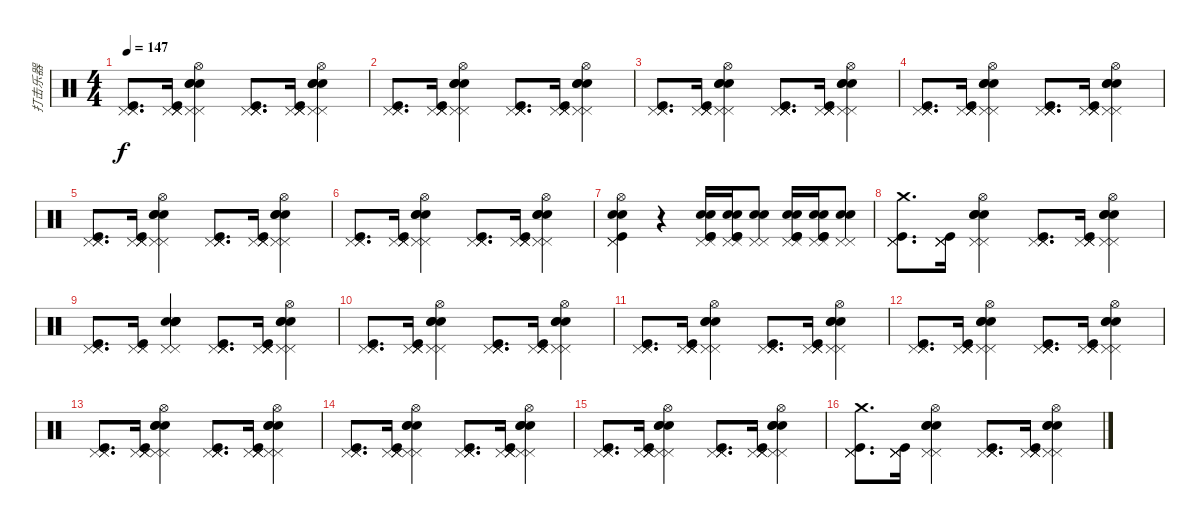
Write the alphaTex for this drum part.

\track ("打击乐器" "打击乐器") {instrument percussion}
\staff {score}
\articulation defaults
\ts (4 4)
\tempo 147
\clef neutral
\ks c
("Pedal Hi-Hat (hit)" "Pedal Hi-Hat (hit)" "Pedal Hi-Hat (hit)" "Kick (hit)").8{d dy f} ("Pedal Hi-Hat (hit)" "Pedal Hi-Hat (hit)" "Pedal Hi-Hat (hit)" "Pedal Hi-Hat (hit)" "Kick (hit)").16 ("Electric Snare (hit)" "Electric Snare (hit)" "Electric Snare (hit)" "Hi-Hat (open)" "Pedal Hi-Hat (hit)" "Pedal Hi-Hat (hit)").4 ("Pedal Hi-Hat (hit)" "Pedal Hi-Hat (hit)" "Pedal Hi-Hat (hit)" "Pedal Hi-Hat (hit)" "Kick (hit)").8{d} ("Pedal Hi-Hat (hit)" "Pedal Hi-Hat (hit)" "Pedal Hi-Hat (hit)" "Pedal Hi-Hat (hit)" "Kick (hit)").16 ("Electric Snare (hit)" "Electric Snare (hit)" "Electric Snare (hit)" "Hi-Hat (open)" "Pedal Hi-Hat (hit)" "Pedal Hi-Hat (hit)").4 |
("Pedal Hi-Hat (hit)" "Pedal Hi-Hat (hit)" "Pedal Hi-Hat (hit)" "Kick (hit)").8{d} ("Pedal Hi-Hat (hit)" "Pedal Hi-Hat (hit)" "Pedal Hi-Hat (hit)" "Pedal Hi-Hat (hit)" "Kick (hit)").16 ("Electric Snare (hit)" "Electric Snare (hit)" "Electric Snare (hit)" "Hi-Hat (open)" "Pedal Hi-Hat (hit)" "Pedal Hi-Hat (hit)").4 ("Pedal Hi-Hat (hit)" "Pedal Hi-Hat (hit)" "Pedal Hi-Hat (hit)" "Pedal Hi-Hat (hit)" "Kick (hit)").8{d} ("Pedal Hi-Hat (hit)" "Pedal Hi-Hat (hit)" "Pedal Hi-Hat (hit)" "Pedal Hi-Hat (hit)" "Kick (hit)").16 ("Electric Snare (hit)" "Electric Snare (hit)" "Electric Snare (hit)" "Hi-Hat (open)" "Pedal Hi-Hat (hit)" "Pedal Hi-Hat (hit)").4 |
("Pedal Hi-Hat (hit)" "Pedal Hi-Hat (hit)" "Pedal Hi-Hat (hit)" "Kick (hit)").8{d} ("Pedal Hi-Hat (hit)" "Pedal Hi-Hat (hit)" "Pedal Hi-Hat (hit)" "Pedal Hi-Hat (hit)" "Kick (hit)").16 ("Electric Snare (hit)" "Electric Snare (hit)" "Electric Snare (hit)" "Hi-Hat (open)" "Pedal Hi-Hat (hit)" "Pedal Hi-Hat (hit)").4 ("Pedal Hi-Hat (hit)" "Pedal Hi-Hat (hit)" "Pedal Hi-Hat (hit)" "Pedal Hi-Hat (hit)" "Kick (hit)").8{d} ("Pedal Hi-Hat (hit)" "Pedal Hi-Hat (hit)" "Pedal Hi-Hat (hit)" "Pedal Hi-Hat (hit)" "Kick (hit)").16 ("Electric Snare (hit)" "Electric Snare (hit)" "Electric Snare (hit)" "Hi-Hat (open)" "Pedal Hi-Hat (hit)" "Pedal Hi-Hat (hit)").4 |
("Pedal Hi-Hat (hit)" "Pedal Hi-Hat (hit)" "Pedal Hi-Hat (hit)" "Kick (hit)").8{d} ("Pedal Hi-Hat (hit)" "Pedal Hi-Hat (hit)" "Pedal Hi-Hat (hit)" "Pedal Hi-Hat (hit)" "Kick (hit)").16 ("Electric Snare (hit)" "Electric Snare (hit)" "Electric Snare (hit)" "Hi-Hat (open)" "Pedal Hi-Hat (hit)" "Pedal Hi-Hat (hit)").4 ("Pedal Hi-Hat (hit)" "Pedal Hi-Hat (hit)" "Pedal Hi-Hat (hit)" "Pedal Hi-Hat (hit)" "Kick (hit)").8{d} ("Pedal Hi-Hat (hit)" "Pedal Hi-Hat (hit)" "Pedal Hi-Hat (hit)" "Pedal Hi-Hat (hit)" "Kick (hit)").16 ("Electric Snare (hit)" "Electric Snare (hit)" "Electric Snare (hit)" "Hi-Hat (open)" "Pedal Hi-Hat (hit)" "Pedal Hi-Hat (hit)").4 |
("Pedal Hi-Hat (hit)" "Pedal Hi-Hat (hit)" "Pedal Hi-Hat (hit)" "Kick (hit)").8{d} ("Pedal Hi-Hat (hit)" "Pedal Hi-Hat (hit)" "Pedal Hi-Hat (hit)" "Pedal Hi-Hat (hit)" "Kick (hit)").16 ("Electric Snare (hit)" "Electric Snare (hit)" "Electric Snare (hit)" "Hi-Hat (open)" "Pedal Hi-Hat (hit)" "Pedal Hi-Hat (hit)").4 ("Pedal Hi-Hat (hit)" "Pedal Hi-Hat (hit)" "Pedal Hi-Hat (hit)" "Pedal Hi-Hat (hit)" "Kick (hit)").8{d} ("Pedal Hi-Hat (hit)" "Pedal Hi-Hat (hit)" "Pedal Hi-Hat (hit)" "Pedal Hi-Hat (hit)" "Kick (hit)").16 ("Electric Snare (hit)" "Electric Snare (hit)" "Electric Snare (hit)" "Hi-Hat (open)" "Pedal Hi-Hat (hit)" "Pedal Hi-Hat (hit)").4 |
("Pedal Hi-Hat (hit)" "Pedal Hi-Hat (hit)" "Pedal Hi-Hat (hit)" "Kick (hit)").8{d} ("Pedal Hi-Hat (hit)" "Pedal Hi-Hat (hit)" "Pedal Hi-Hat (hit)" "Pedal Hi-Hat (hit)" "Kick (hit)").16 ("Electric Snare (hit)" "Electric Snare (hit)" "Electric Snare (hit)" "Hi-Hat (open)" "Pedal Hi-Hat (hit)" "Pedal Hi-Hat (hit)").4 ("Pedal Hi-Hat (hit)" "Pedal Hi-Hat (hit)" "Pedal Hi-Hat (hit)" "Pedal Hi-Hat (hit)" "Kick (hit)").8{d} ("Pedal Hi-Hat (hit)" "Pedal Hi-Hat (hit)" "Pedal Hi-Hat (hit)" "Pedal Hi-Hat (hit)" "Kick (hit)").16 ("Electric Snare (hit)" "Electric Snare (hit)" "Electric Snare (hit)" "Hi-Hat (open)" "Pedal Hi-Hat (hit)" "Pedal Hi-Hat (hit)").4 |
("Hi-Hat (open)" "Pedal Hi-Hat (hit)" "Pedal Hi-Hat (hit)" "Electric Snare (hit)" "Electric Snare (hit)" "Kick (hit)").4 r.4 ("Pedal Hi-Hat (hit)" "Pedal Hi-Hat (hit)" "Electric Snare (hit)" "Electric Snare (hit)" "Kick (hit)" "Kick (hit)").16 ("Pedal Hi-Hat (hit)" "Pedal Hi-Hat (hit)" "Electric Snare (hit)" "Electric Snare (hit)" "Kick (hit)" "Kick (hit)").16 ("Pedal Hi-Hat (hit)" "Pedal Hi-Hat (hit)" "Electric Snare (hit)" "Electric Snare (hit)").8 ("Pedal Hi-Hat (hit)" "Pedal Hi-Hat (hit)" "Electric Snare (hit)" "Electric Snare (hit)" "Kick (hit)" "Kick (hit)").16 ("Pedal Hi-Hat (hit)" "Pedal Hi-Hat (hit)" "Electric Snare (hit)" "Electric Snare (hit)" "Kick (hit)" "Kick (hit)").16 ("Pedal Hi-Hat (hit)" "Pedal Hi-Hat (hit)" "Electric Snare (hit)" "Electric Snare (hit)").8 |
("Pedal Hi-Hat (hit)" "Pedal Hi-Hat (hit)" "Pedal Hi-Hat (hit)" "Crash medium (hit)" "Kick (hit)").8{d} ("Pedal Hi-Hat (hit)" "Pedal Hi-Hat (hit)" "Pedal Hi-Hat (hit)" "Pedal Hi-Hat (hit)" "Kick (hit)").16 ("Electric Snare (hit)" "Electric Snare (hit)" "Electric Snare (hit)" "Hi-Hat (open)" "Pedal Hi-Hat (hit)" "Pedal Hi-Hat (hit)").4 ("Pedal Hi-Hat (hit)" "Pedal Hi-Hat (hit)" "Pedal Hi-Hat (hit)" "Pedal Hi-Hat (hit)" "Kick (hit)").8{d} ("Pedal Hi-Hat (hit)" "Pedal Hi-Hat (hit)" "Pedal Hi-Hat (hit)" "Pedal Hi-Hat (hit)" "Kick (hit)").16 ("Electric Snare (hit)" "Electric Snare (hit)" "Electric Snare (hit)" "Hi-Hat (open)" "Pedal Hi-Hat (hit)" "Pedal Hi-Hat (hit)").4 |
("Pedal Hi-Hat (hit)" "Pedal Hi-Hat (hit)" "Pedal Hi-Hat (hit)" "Kick (hit)").8{d} ("Pedal Hi-Hat (hit)" "Pedal Hi-Hat (hit)" "Pedal Hi-Hat (hit)" "Kick (hit)").16 ("Electric Snare (hit)" "Electric Snare (hit)" "Electric Snare (hit)" "Electric Snare (hit)" "Pedal Hi-Hat (hit)" "Pedal Hi-Hat (hit)").4 ("Pedal Hi-Hat (hit)" "Pedal Hi-Hat (hit)" "Pedal Hi-Hat (hit)" "Pedal Hi-Hat (hit)" "Kick (hit)").8{d} ("Pedal Hi-Hat (hit)" "Pedal Hi-Hat (hit)" "Pedal Hi-Hat (hit)" "Pedal Hi-Hat (hit)" "Kick (hit)").16 ("Electric Snare (hit)" "Electric Snare (hit)" "Electric Snare (hit)" "Hi-Hat (open)" "Pedal Hi-Hat (hit)" "Pedal Hi-Hat (hit)").4 |
("Pedal Hi-Hat (hit)" "Pedal Hi-Hat (hit)" "Pedal Hi-Hat (hit)" "Kick (hit)").8{d} ("Pedal Hi-Hat (hit)" "Pedal Hi-Hat (hit)" "Pedal Hi-Hat (hit)" "Pedal Hi-Hat (hit)" "Kick (hit)").16 ("Electric Snare (hit)" "Electric Snare (hit)" "Electric Snare (hit)" "Hi-Hat (open)" "Pedal Hi-Hat (hit)" "Pedal Hi-Hat (hit)").4 ("Pedal Hi-Hat (hit)" "Pedal Hi-Hat (hit)" "Pedal Hi-Hat (hit)" "Pedal Hi-Hat (hit)" "Kick (hit)").8{d} ("Pedal Hi-Hat (hit)" "Pedal Hi-Hat (hit)" "Pedal Hi-Hat (hit)" "Pedal Hi-Hat (hit)" "Kick (hit)").16 ("Electric Snare (hit)" "Electric Snare (hit)" "Electric Snare (hit)" "Hi-Hat (open)" "Pedal Hi-Hat (hit)" "Pedal Hi-Hat (hit)").4 |
("Pedal Hi-Hat (hit)" "Pedal Hi-Hat (hit)" "Pedal Hi-Hat (hit)" "Kick (hit)").8{d} ("Pedal Hi-Hat (hit)" "Pedal Hi-Hat (hit)" "Pedal Hi-Hat (hit)" "Pedal Hi-Hat (hit)" "Kick (hit)").16 ("Electric Snare (hit)" "Electric Snare (hit)" "Electric Snare (hit)" "Hi-Hat (open)" "Pedal Hi-Hat (hit)" "Pedal Hi-Hat (hit)").4 ("Pedal Hi-Hat (hit)" "Pedal Hi-Hat (hit)" "Pedal Hi-Hat (hit)" "Pedal Hi-Hat (hit)" "Kick (hit)").8{d} ("Pedal Hi-Hat (hit)" "Pedal Hi-Hat (hit)" "Pedal Hi-Hat (hit)" "Pedal Hi-Hat (hit)" "Kick (hit)").16 ("Electric Snare (hit)" "Electric Snare (hit)" "Electric Snare (hit)" "Hi-Hat (open)" "Pedal Hi-Hat (hit)" "Pedal Hi-Hat (hit)").4 |
("Pedal Hi-Hat (hit)" "Pedal Hi-Hat (hit)" "Pedal Hi-Hat (hit)" "Kick (hit)").8{d} ("Pedal Hi-Hat (hit)" "Pedal Hi-Hat (hit)" "Pedal Hi-Hat (hit)" "Pedal Hi-Hat (hit)" "Kick (hit)").16 ("Electric Snare (hit)" "Electric Snare (hit)" "Electric Snare (hit)" "Hi-Hat (open)" "Pedal Hi-Hat (hit)" "Pedal Hi-Hat (hit)").4 ("Pedal Hi-Hat (hit)" "Pedal Hi-Hat (hit)" "Pedal Hi-Hat (hit)" "Pedal Hi-Hat (hit)" "Kick (hit)").8{d} ("Pedal Hi-Hat (hit)" "Pedal Hi-Hat (hit)" "Pedal Hi-Hat (hit)" "Pedal Hi-Hat (hit)" "Kick (hit)").16 ("Electric Snare (hit)" "Electric Snare (hit)" "Electric Snare (hit)" "Hi-Hat (open)" "Pedal Hi-Hat (hit)" "Pedal Hi-Hat (hit)").4 |
("Pedal Hi-Hat (hit)" "Pedal Hi-Hat (hit)" "Pedal Hi-Hat (hit)" "Kick (hit)").8{d} ("Pedal Hi-Hat (hit)" "Pedal Hi-Hat (hit)" "Pedal Hi-Hat (hit)" "Pedal Hi-Hat (hit)" "Kick (hit)").16 ("Electric Snare (hit)" "Electric Snare (hit)" "Electric Snare (hit)" "Hi-Hat (open)" "Pedal Hi-Hat (hit)" "Pedal Hi-Hat (hit)").4 ("Pedal Hi-Hat (hit)" "Pedal Hi-Hat (hit)" "Pedal Hi-Hat (hit)" "Pedal Hi-Hat (hit)" "Kick (hit)").8{d} ("Pedal Hi-Hat (hit)" "Pedal Hi-Hat (hit)" "Pedal Hi-Hat (hit)" "Pedal Hi-Hat (hit)" "Kick (hit)").16 ("Electric Snare (hit)" "Electric Snare (hit)" "Electric Snare (hit)" "Hi-Hat (open)" "Pedal Hi-Hat (hit)" "Pedal Hi-Hat (hit)").4 |
("Pedal Hi-Hat (hit)" "Pedal Hi-Hat (hit)" "Pedal Hi-Hat (hit)" "Kick (hit)").8{d} ("Pedal Hi-Hat (hit)" "Pedal Hi-Hat (hit)" "Pedal Hi-Hat (hit)" "Pedal Hi-Hat (hit)" "Kick (hit)").16 ("Electric Snare (hit)" "Electric Snare (hit)" "Electric Snare (hit)" "Hi-Hat (open)" "Pedal Hi-Hat (hit)" "Pedal Hi-Hat (hit)").4 ("Pedal Hi-Hat (hit)" "Pedal Hi-Hat (hit)" "Pedal Hi-Hat (hit)" "Pedal Hi-Hat (hit)" "Kick (hit)").8{d} ("Pedal Hi-Hat (hit)" "Pedal Hi-Hat (hit)" "Pedal Hi-Hat (hit)" "Pedal Hi-Hat (hit)" "Kick (hit)").16 ("Electric Snare (hit)" "Electric Snare (hit)" "Electric Snare (hit)" "Hi-Hat (open)" "Pedal Hi-Hat (hit)" "Pedal Hi-Hat (hit)").4 |
("Pedal Hi-Hat (hit)" "Pedal Hi-Hat (hit)" "Pedal Hi-Hat (hit)" "Kick (hit)").8{d} ("Pedal Hi-Hat (hit)" "Pedal Hi-Hat (hit)" "Pedal Hi-Hat (hit)" "Pedal Hi-Hat (hit)" "Kick (hit)").16 ("Electric Snare (hit)" "Electric Snare (hit)" "Electric Snare (hit)" "Hi-Hat (open)" "Pedal Hi-Hat (hit)" "Pedal Hi-Hat (hit)").4 ("Pedal Hi-Hat (hit)" "Pedal Hi-Hat (hit)" "Pedal Hi-Hat (hit)" "Pedal Hi-Hat (hit)" "Kick (hit)").8{d} ("Pedal Hi-Hat (hit)" "Pedal Hi-Hat (hit)" "Pedal Hi-Hat (hit)" "Pedal Hi-Hat (hit)" "Kick (hit)").16 ("Electric Snare (hit)" "Electric Snare (hit)" "Electric Snare (hit)" "Hi-Hat (open)" "Pedal Hi-Hat (hit)" "Pedal Hi-Hat (hit)").4 |
("Pedal Hi-Hat (hit)" "Pedal Hi-Hat (hit)" "Pedal Hi-Hat (hit)" "Crash medium (hit)" "Kick (hit)").8{d} ("Pedal Hi-Hat (hit)" "Pedal Hi-Hat (hit)" "Pedal Hi-Hat (hit)" "Pedal Hi-Hat (hit)" "Kick (hit)").16 ("Electric Snare (hit)" "Electric Snare (hit)" "Electric Snare (hit)" "Hi-Hat (open)" "Pedal Hi-Hat (hit)" "Pedal Hi-Hat (hit)").4 ("Pedal Hi-Hat (hit)" "Pedal Hi-Hat (hit)" "Pedal Hi-Hat (hit)" "Pedal Hi-Hat (hit)" "Kick (hit)").8{d} ("Pedal Hi-Hat (hit)" "Pedal Hi-Hat (hit)" "Pedal Hi-Hat (hit)" "Pedal Hi-Hat (hit)" "Kick (hit)").16 ("Electric Snare (hit)" "Electric Snare (hit)" "Electric Snare (hit)" "Hi-Hat (open)" "Pedal Hi-Hat (hit)" "Pedal Hi-Hat (hit)").4
